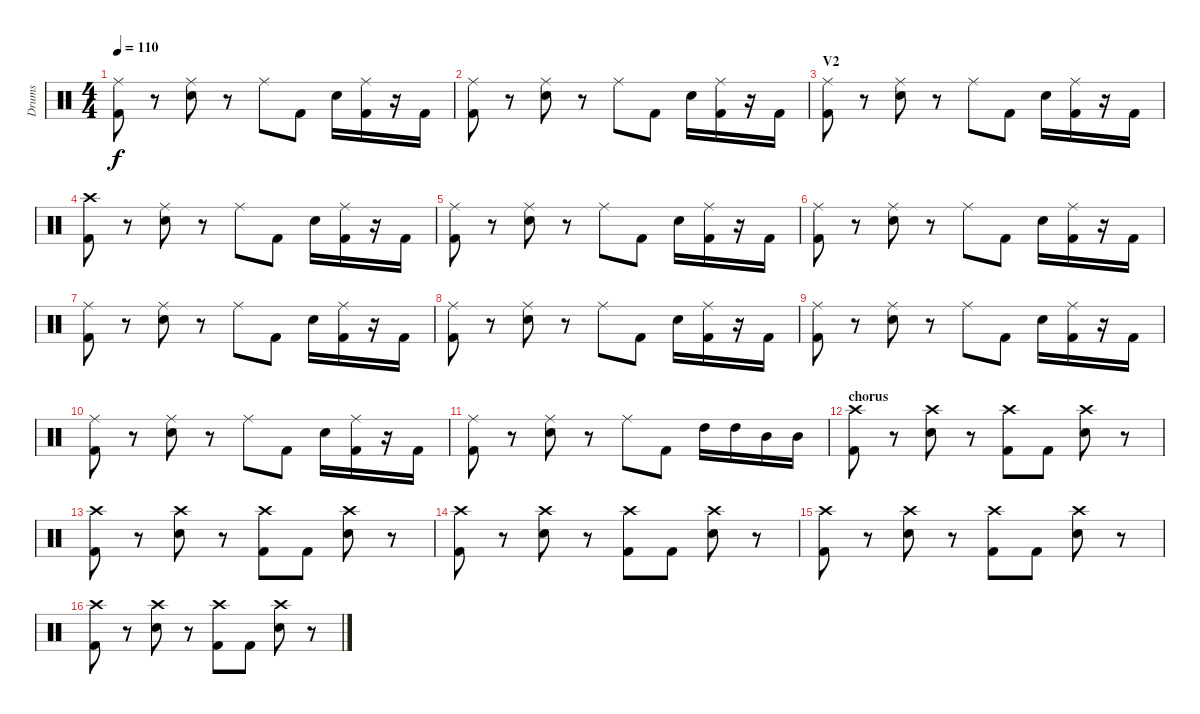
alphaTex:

\track ("Drums" "Drums") {instrument percussion}
\staff {score}
\articulation defaults
\ts (4 4)
\tempo 110
\clef neutral
\ks c
("Ride (middle)" "Kick (hit) 2").8{dy f} r.8 ("Ride (middle)" "Snare (hit) 2").8 r.8 "Ride (middle)".8 "Kick (hit) 2".8 "Snare (hit) 2".16 ("Ride (middle)" "Kick (hit) 2").16 r.16 "Kick (hit) 2".16 |
("Ride (middle)" "Kick (hit) 2").8 r.8 ("Ride (middle)" "Snare (hit) 2").8 r.8 "Ride (middle)".8 "Kick (hit) 2".8 "Snare (hit) 2".16 ("Ride (middle)" "Kick (hit) 2").16 r.16 "Kick (hit) 2".16 |
\section ("" "V2")
("Ride (middle)" "Kick (hit) 2").8 r.8 ("Ride (middle)" "Snare (hit) 2").8 r.8 "Ride (middle)".8 "Kick (hit) 2".8 "Snare (hit) 2".16 ("Ride (middle)" "Kick (hit) 2").16 r.16 "Kick (hit) 2".16 |
("Crash high (hit)" "Kick (hit) 2").8 r.8 ("Ride (middle)" "Snare (hit) 2").8 r.8 "Ride (middle)".8 "Kick (hit) 2".8 "Snare (hit) 2".16 ("Ride (middle)" "Kick (hit) 2").16 r.16 "Kick (hit) 2".16 |
("Ride (middle)" "Kick (hit) 2").8 r.8 ("Ride (middle)" "Snare (hit) 2").8 r.8 "Ride (middle)".8 "Kick (hit) 2".8 "Snare (hit) 2".16 ("Ride (middle)" "Kick (hit) 2").16 r.16 "Kick (hit) 2".16 |
("Ride (middle)" "Kick (hit) 2").8 r.8 ("Ride (middle)" "Snare (hit) 2").8 r.8 "Ride (middle)".8 "Kick (hit) 2".8 "Snare (hit) 2".16 ("Ride (middle)" "Kick (hit) 2").16 r.16 "Kick (hit) 2".16 |
("Ride (middle)" "Kick (hit) 2").8 r.8 ("Ride (middle)" "Snare (hit) 2").8 r.8 "Ride (middle)".8 "Kick (hit) 2".8 "Snare (hit) 2".16 ("Ride (middle)" "Kick (hit) 2").16 r.16 "Kick (hit) 2".16 |
("Ride (middle)" "Kick (hit) 2").8 r.8 ("Ride (middle)" "Snare (hit) 2").8 r.8 "Ride (middle)".8 "Kick (hit) 2".8 "Snare (hit) 2".16 ("Ride (middle)" "Kick (hit) 2").16 r.16 "Kick (hit) 2".16 |
("Ride (middle)" "Kick (hit) 2").8 r.8 ("Ride (middle)" "Snare (hit) 2").8 r.8 "Ride (middle)".8 "Kick (hit) 2".8 "Snare (hit) 2".16 ("Ride (middle)" "Kick (hit) 2").16 r.16 "Kick (hit) 2".16 |
("Ride (middle)" "Kick (hit) 2").8 r.8 ("Ride (middle)" "Snare (hit) 2").8 r.8 "Ride (middle)".8 "Kick (hit) 2".8 "Snare (hit) 2".16 ("Ride (middle)" "Kick (hit) 2").16 r.16 "Kick (hit) 2".16 |
("Ride (middle)" "Kick (hit) 2").8 r.8 ("Ride (middle)" "Snare (hit) 2").8 r.8 "Ride (middle)".8 "Kick (hit) 2".8 "High Tom (hit)".16 "High Tom (hit)".16 "Mid Tom (hit)".16 "Mid Tom (hit)".16 |
\section ("" "chorus")
("Crash high (hit)" "Kick (hit) 2").8 r.8 ("Crash high (hit)" "Snare (hit) 2").8 r.8 ("Crash high (hit)" "Kick (hit) 2").8 "Kick (hit) 2".8 ("Crash high (hit)" "Snare (hit) 2").8 r.8 |
("Crash high (hit)" "Kick (hit) 2").8 r.8 ("Crash high (hit)" "Snare (hit) 2").8 r.8 ("Crash high (hit)" "Kick (hit) 2").8 "Kick (hit) 2".8 ("Crash high (hit)" "Snare (hit) 2").8 r.8 |
("Crash high (hit)" "Kick (hit) 2").8 r.8 ("Crash high (hit)" "Snare (hit) 2").8 r.8 ("Crash high (hit)" "Kick (hit) 2").8 "Kick (hit) 2".8 ("Crash high (hit)" "Snare (hit) 2").8 r.8 |
("Crash high (hit)" "Kick (hit) 2").8 r.8 ("Crash high (hit)" "Snare (hit) 2").8 r.8 ("Crash high (hit)" "Kick (hit) 2").8 "Kick (hit) 2".8 ("Crash high (hit)" "Snare (hit) 2").8 r.8 |
("Crash high (hit)" "Kick (hit) 2").8 r.8 ("Crash high (hit)" "Snare (hit) 2").8 r.8 ("Crash high (hit)" "Kick (hit) 2").8 "Kick (hit) 2".8 ("Crash high (hit)" "Snare (hit) 2").8 r.8
